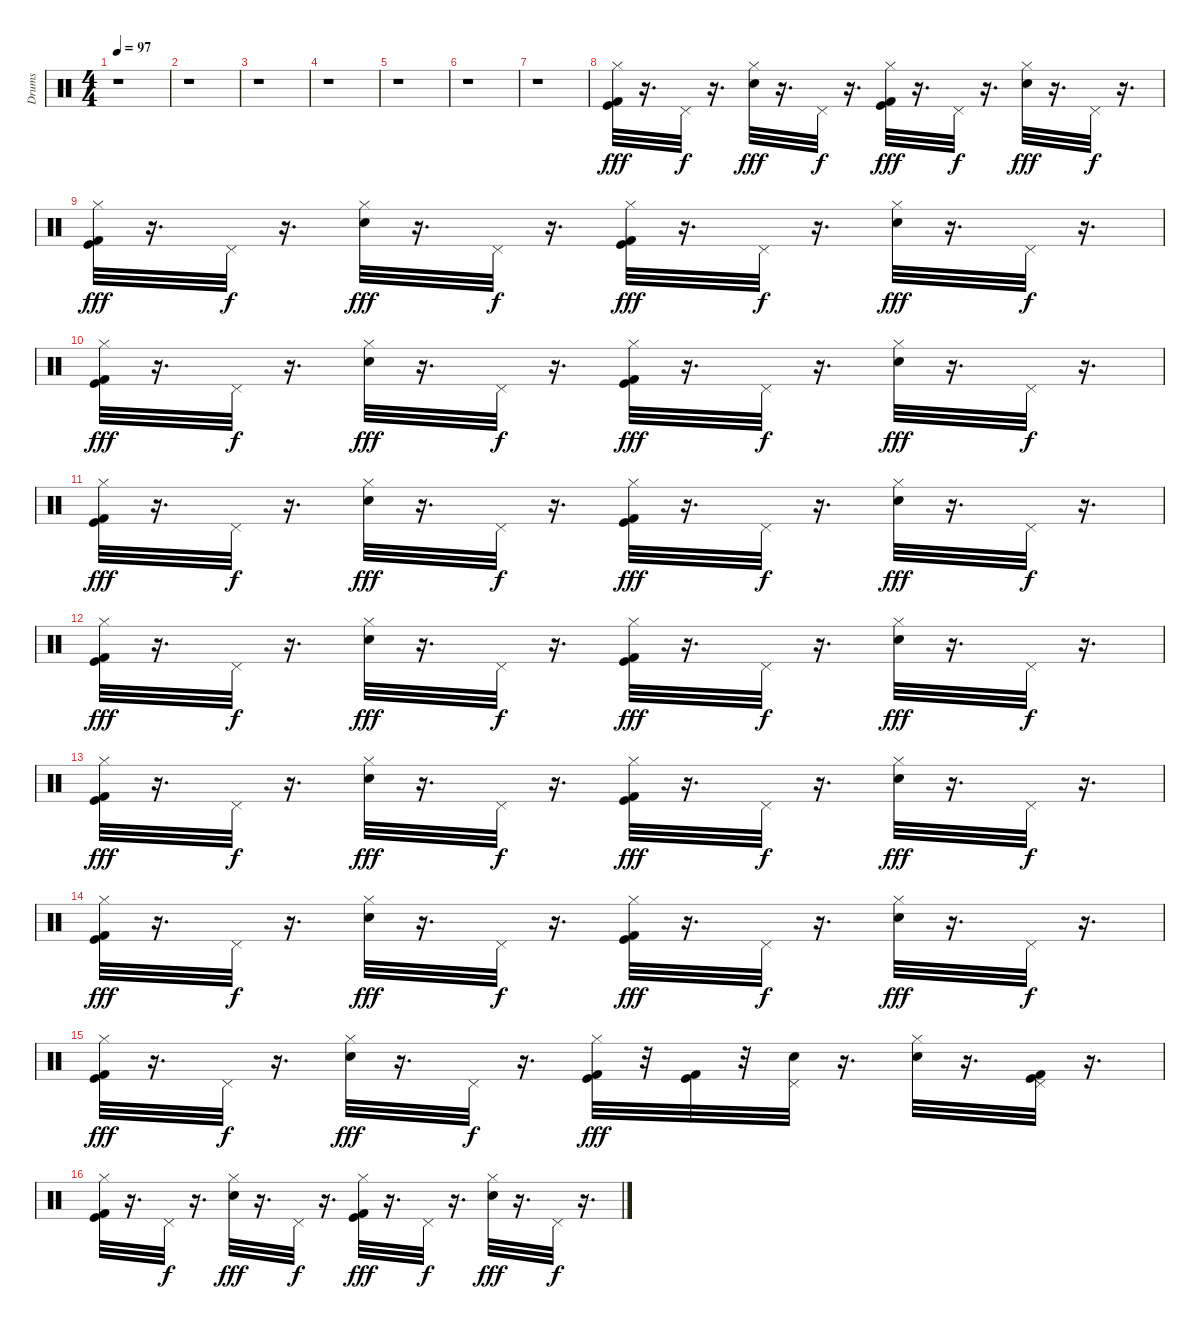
\track ("Drums" "Drums") {instrument percussion}
\staff {score}
\articulation defaults
\ts (4 4)
\tempo 97
\clef neutral
\ks c
r.1{dy fff} |
r.1 |
r.1 |
r.1 |
r.1 |
r.1 |
r.1 |
("Kick (hit)" "Kick (hit) 2" "Hi-Hat (closed)").32 r.16{d} "Pedal Hi-Hat (hit)".32{dy f} r.16{d} ("Hi-Hat (closed)" "Snare (hit) 2").32{dy fff} r.16{d} "Pedal Hi-Hat (hit)".32{dy f} r.16{d} ("Kick (hit)" "Kick (hit) 2" "Hi-Hat (closed)").32{dy fff} r.16{d} "Pedal Hi-Hat (hit)".32{dy f} r.16{d} ("Hi-Hat (closed)" "Snare (hit) 2").32{dy fff} r.16{d} "Pedal Hi-Hat (hit)".32{dy f} r.16{d} |
("Kick (hit)" "Kick (hit) 2" "Hi-Hat (closed)").32{dy fff} r.16{d} "Pedal Hi-Hat (hit)".32{dy f} r.16{d} ("Hi-Hat (closed)" "Snare (hit) 2").32{dy fff} r.16{d} "Pedal Hi-Hat (hit)".32{dy f} r.16{d} ("Kick (hit)" "Kick (hit) 2" "Hi-Hat (closed)").32{dy fff} r.16{d} "Pedal Hi-Hat (hit)".32{dy f} r.16{d} ("Hi-Hat (closed)" "Snare (hit) 2").32{dy fff} r.16{d} "Pedal Hi-Hat (hit)".32{dy f} r.16{d} |
("Kick (hit)" "Kick (hit) 2" "Hi-Hat (closed)").32{dy fff} r.16{d} "Pedal Hi-Hat (hit)".32{dy f} r.16{d} ("Hi-Hat (closed)" "Snare (hit) 2").32{dy fff} r.16{d} "Pedal Hi-Hat (hit)".32{dy f} r.16{d} ("Kick (hit)" "Kick (hit) 2" "Hi-Hat (closed)").32{dy fff} r.16{d} "Pedal Hi-Hat (hit)".32{dy f} r.16{d} ("Hi-Hat (closed)" "Snare (hit) 2").32{dy fff} r.16{d} "Pedal Hi-Hat (hit)".32{dy f} r.16{d} |
("Kick (hit)" "Kick (hit) 2" "Hi-Hat (closed)").32{dy fff} r.16{d} "Pedal Hi-Hat (hit)".32{dy f} r.16{d} ("Hi-Hat (closed)" "Snare (hit) 2").32{dy fff} r.16{d} "Pedal Hi-Hat (hit)".32{dy f} r.16{d} ("Kick (hit)" "Kick (hit) 2" "Hi-Hat (closed)").32{dy fff} r.16{d} "Pedal Hi-Hat (hit)".32{dy f} r.16{d} ("Hi-Hat (closed)" "Snare (hit) 2").32{dy fff} r.16{d} "Pedal Hi-Hat (hit)".32{dy f} r.16{d} |
("Kick (hit)" "Kick (hit) 2" "Hi-Hat (closed)").32{dy fff} r.16{d} "Pedal Hi-Hat (hit)".32{dy f} r.16{d} ("Hi-Hat (closed)" "Snare (hit) 2").32{dy fff} r.16{d} "Pedal Hi-Hat (hit)".32{dy f} r.16{d} ("Kick (hit)" "Kick (hit) 2" "Hi-Hat (closed)").32{dy fff} r.16{d} "Pedal Hi-Hat (hit)".32{dy f} r.16{d} ("Hi-Hat (closed)" "Snare (hit) 2").32{dy fff} r.16{d} "Pedal Hi-Hat (hit)".32{dy f} r.16{d} |
("Kick (hit)" "Kick (hit) 2" "Hi-Hat (closed)").32{dy fff} r.16{d} "Pedal Hi-Hat (hit)".32{dy f} r.16{d} ("Hi-Hat (closed)" "Snare (hit) 2").32{dy fff} r.16{d} "Pedal Hi-Hat (hit)".32{dy f} r.16{d} ("Kick (hit)" "Kick (hit) 2" "Hi-Hat (closed)").32{dy fff} r.16{d} "Pedal Hi-Hat (hit)".32{dy f} r.16{d} ("Hi-Hat (closed)" "Snare (hit) 2").32{dy fff} r.16{d} "Pedal Hi-Hat (hit)".32{dy f} r.16{d} |
("Kick (hit)" "Kick (hit) 2" "Hi-Hat (closed)").32{dy fff} r.16{d} "Pedal Hi-Hat (hit)".32{dy f} r.16{d} ("Hi-Hat (closed)" "Snare (hit) 2").32{dy fff} r.16{d} "Pedal Hi-Hat (hit)".32{dy f} r.16{d} ("Kick (hit)" "Kick (hit) 2" "Hi-Hat (closed)").32{dy fff} r.16{d} "Pedal Hi-Hat (hit)".32{dy f} r.16{d} ("Hi-Hat (closed)" "Snare (hit) 2").32{dy fff} r.16{d} "Pedal Hi-Hat (hit)".32{dy f} r.16{d} |
("Kick (hit)" "Kick (hit) 2" "Hi-Hat (closed)").32{dy fff} r.16{d} "Pedal Hi-Hat (hit)".32{dy f} r.16{d} ("Hi-Hat (closed)" "Snare (hit) 2").32{dy fff} r.16{d} "Pedal Hi-Hat (hit)".32{dy f} r.16{d} ("Kick (hit)" "Kick (hit) 2" "Hi-Hat (closed)").32{dy fff} r.32 ("Kick (hit) 2" "Kick (hit)").32 r.32 ("Snare (hit) 2" "Pedal Hi-Hat (hit)").32 r.16{d} ("Hi-Hat (closed)" "Snare (hit) 2").32 r.16{d} ("Kick (hit)" "Kick (hit) 2" "Pedal Hi-Hat (hit)").32 r.16{d} |
("Kick (hit)" "Kick (hit) 2" "Hi-Hat (closed)").32 r.16{d} "Pedal Hi-Hat (hit)".32{dy f} r.16{d} ("Hi-Hat (closed)" "Snare (hit) 2").32{dy fff} r.16{d} "Pedal Hi-Hat (hit)".32{dy f} r.16{d} ("Kick (hit)" "Kick (hit) 2" "Hi-Hat (closed)").32{dy fff} r.16{d} "Pedal Hi-Hat (hit)".32{dy f} r.16{d} ("Hi-Hat (closed)" "Snare (hit) 2").32{dy fff} r.16{d} "Pedal Hi-Hat (hit)".32{dy f} r.16{d}
